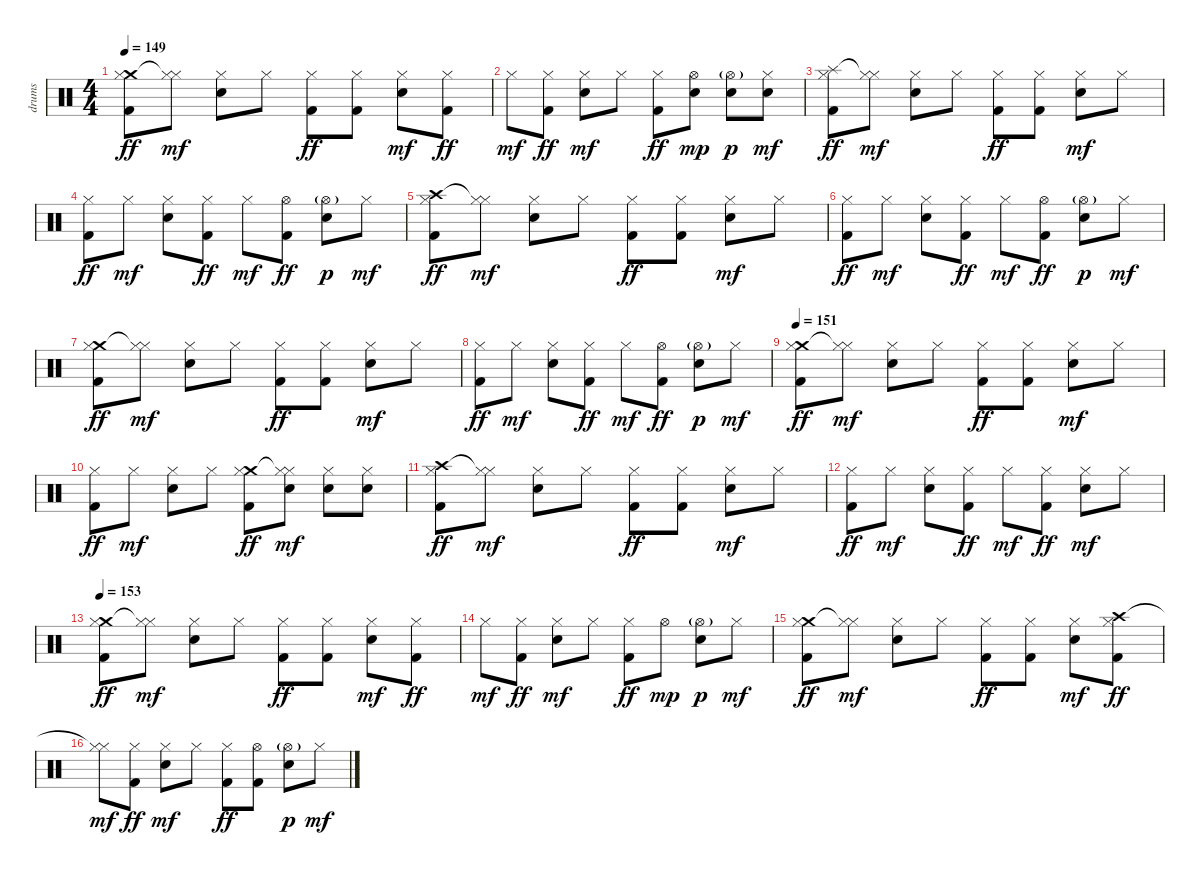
\track ("drums" "drums") {instrument percussion}
\staff {score}
\articulation defaults
\ts (4 4)
\tempo 149
\clef neutral
\ks c
("Crash medium (hit)" "Hi-Hat (closed)" "Kick (hit) 2").8{dy ff} ("Hi-Hat (closed)"{t} "Hi-Hat (closed)").8{dy mf} ("Hi-Hat (closed)" "Electric Snare (hit)").8 "Hi-Hat (closed)".8 ("Hi-Hat (closed)" "Kick (hit) 2").8{dy ff} ("Hi-Hat (closed)" "Kick (hit) 2").8 ("Hi-Hat (closed)" "Electric Snare (hit)").8{dy mf} ("Hi-Hat (closed)" "Kick (hit) 2").8{dy ff} |
"Hi-Hat (closed)".8{dy mf} ("Hi-Hat (closed)" "Kick (hit) 2").8{dy ff} ("Hi-Hat (closed)" "Electric Snare (hit)").8{dy mf} "Hi-Hat (closed)".8 ("Hi-Hat (closed)" "Kick (hit) 2").8{dy ff} ("Hi-Hat (open)" "Electric Snare (hit)").8{dy mp} ("Hi-Hat (open)"{g} "Electric Snare (hit)").8{dy p} ("Hi-Hat (closed)" "Electric Snare (hit)").8{dy mf} |
("Splash (hit)" "Hi-Hat (closed)" "Kick (hit) 2").8{dy ff} ("Hi-Hat (closed)"{t} "Hi-Hat (closed)").8{dy mf} ("Hi-Hat (closed)" "Electric Snare (hit)").8 "Hi-Hat (closed)".8 ("Hi-Hat (closed)" "Kick (hit) 2").8{dy ff} ("Hi-Hat (closed)" "Kick (hit) 2").8 ("Hi-Hat (closed)" "Electric Snare (hit)").8{dy mf} "Hi-Hat (closed)".8 |
("Hi-Hat (closed)" "Kick (hit) 2").8{dy ff} "Hi-Hat (closed)".8{dy mf} ("Hi-Hat (closed)" "Electric Snare (hit)").8 ("Hi-Hat (closed)" "Kick (hit) 2").8{dy ff} "Hi-Hat (closed)".8{dy mf} ("Hi-Hat (open)" "Kick (hit) 2").8{dy ff} ("Hi-Hat (open)"{g} "Electric Snare (hit)").8{dy p} "Hi-Hat (closed)".8{dy mf} |
("Crash high (hit)" "Hi-Hat (closed)" "Kick (hit) 2").8{dy ff} ("Hi-Hat (closed)"{t} "Hi-Hat (closed)").8{dy mf} ("Hi-Hat (closed)" "Electric Snare (hit)").8 "Hi-Hat (closed)".8 ("Hi-Hat (closed)" "Kick (hit) 2").8{dy ff} ("Hi-Hat (closed)" "Kick (hit) 2").8 ("Hi-Hat (closed)" "Electric Snare (hit)").8{dy mf} "Hi-Hat (closed)".8 |
("Hi-Hat (closed)" "Kick (hit) 2").8{dy ff} "Hi-Hat (closed)".8{dy mf} ("Hi-Hat (closed)" "Electric Snare (hit)").8 ("Hi-Hat (closed)" "Kick (hit) 2").8{dy ff} "Hi-Hat (closed)".8{dy mf} ("Hi-Hat (open)" "Kick (hit) 2").8{dy ff} ("Hi-Hat (open)"{g} "Electric Snare (hit)").8{dy p} "Hi-Hat (closed)".8{dy mf} |
("Crash medium (hit)" "Hi-Hat (closed)" "Kick (hit) 2").8{dy ff} ("Hi-Hat (closed)"{t} "Hi-Hat (closed)").8{dy mf} ("Hi-Hat (closed)" "Electric Snare (hit)").8 "Hi-Hat (closed)".8 ("Hi-Hat (closed)" "Kick (hit) 2").8{dy ff} ("Hi-Hat (closed)" "Kick (hit) 2").8 ("Hi-Hat (closed)" "Electric Snare (hit)").8{dy mf} "Hi-Hat (closed)".8 |
("Hi-Hat (closed)" "Kick (hit) 2").8{dy ff} "Hi-Hat (closed)".8{dy mf} ("Hi-Hat (closed)" "Electric Snare (hit)").8 ("Hi-Hat (closed)" "Kick (hit) 2").8{dy ff} "Hi-Hat (closed)".8{dy mf} ("Hi-Hat (open)" "Kick (hit) 2").8{dy ff} ("Hi-Hat (open)"{g} "Electric Snare (hit)").8{dy p} "Hi-Hat (closed)".8{dy mf} |
\tempo 151
("Crash medium (hit)" "Hi-Hat (closed)" "Kick (hit) 2").8{dy ff} ("Hi-Hat (closed)"{t} "Hi-Hat (closed)").8{dy mf} ("Hi-Hat (closed)" "Electric Snare (hit)").8 "Hi-Hat (closed)".8 ("Hi-Hat (closed)" "Kick (hit) 2").8{dy ff} ("Hi-Hat (closed)" "Kick (hit) 2").8 ("Hi-Hat (closed)" "Electric Snare (hit)").8{dy mf} "Hi-Hat (closed)".8 |
("Hi-Hat (closed)" "Kick (hit) 2").8{dy ff} "Hi-Hat (closed)".8{dy mf} ("Hi-Hat (closed)" "Electric Snare (hit)").8 "Hi-Hat (closed)".8 ("Crash medium (hit)" "Hi-Hat (closed)" "Kick (hit) 2").8{dy ff} ("Hi-Hat (closed)"{t} "Hi-Hat (closed)" "Electric Snare (hit)").8{dy mf} ("Hi-Hat (closed)" "Electric Snare (hit)").8 ("Hi-Hat (closed)" "Electric Snare (hit)").8 |
("Crash high (hit)" "Hi-Hat (closed)" "Kick (hit) 2").8{dy ff} ("Hi-Hat (closed)"{t} "Hi-Hat (closed)").8{dy mf} ("Hi-Hat (closed)" "Electric Snare (hit)").8 "Hi-Hat (closed)".8 ("Hi-Hat (closed)" "Kick (hit) 2").8{dy ff} ("Hi-Hat (closed)" "Kick (hit) 2").8 ("Hi-Hat (closed)" "Electric Snare (hit)").8{dy mf} "Hi-Hat (closed)".8 |
("Hi-Hat (closed)" "Kick (hit) 2").8{dy ff} "Hi-Hat (closed)".8{dy mf} ("Hi-Hat (closed)" "Electric Snare (hit)").8 ("Hi-Hat (closed)" "Kick (hit) 2").8{dy ff} "Hi-Hat (closed)".8{dy mf} ("Hi-Hat (closed)" "Kick (hit) 2").8{dy ff} ("Hi-Hat (closed)" "Electric Snare (hit)").8{dy mf} "Hi-Hat (closed)".8 |
\tempo 153
("Crash medium (hit)" "Hi-Hat (closed)" "Kick (hit) 2").8{dy ff} ("Hi-Hat (closed)"{t} "Hi-Hat (closed)").8{dy mf} ("Hi-Hat (closed)" "Electric Snare (hit)").8 "Hi-Hat (closed)".8 ("Hi-Hat (closed)" "Kick (hit) 2").8{dy ff} ("Hi-Hat (closed)" "Kick (hit) 2").8 ("Hi-Hat (closed)" "Electric Snare (hit)").8{dy mf} ("Hi-Hat (closed)" "Kick (hit) 2").8{dy ff} |
"Hi-Hat (closed)".8{dy mf} ("Hi-Hat (closed)" "Kick (hit) 2").8{dy ff} ("Hi-Hat (closed)" "Electric Snare (hit)").8{dy mf} "Hi-Hat (closed)".8 ("Hi-Hat (closed)" "Kick (hit) 2").8{dy ff} "Hi-Hat (open)".8{dy mp} ("Hi-Hat (open)"{g} "Electric Snare (hit)").8{dy p} "Hi-Hat (closed)".8{dy mf} |
("Crash medium (hit)" "Hi-Hat (closed)" "Kick (hit) 2").8{dy ff} ("Hi-Hat (closed)"{t} "Hi-Hat (closed)").8{dy mf} ("Hi-Hat (closed)" "Electric Snare (hit)").8 "Hi-Hat (closed)".8 ("Hi-Hat (closed)" "Kick (hit) 2").8{dy ff} ("Hi-Hat (closed)" "Kick (hit) 2").8 ("Hi-Hat (closed)" "Electric Snare (hit)").8{dy mf} ("Crash high (hit)" "Hi-Hat (closed)" "Kick (hit) 2").8{dy ff} |
("Hi-Hat (closed)"{t} "Hi-Hat (closed)").8{dy mf} ("Hi-Hat (closed)" "Kick (hit) 2").8{dy ff} ("Hi-Hat (closed)" "Electric Snare (hit)").8{dy mf} "Hi-Hat (closed)".8 ("Hi-Hat (closed)" "Kick (hit) 2").8{dy ff} ("Hi-Hat (open)" "Kick (hit) 2").8 ("Hi-Hat (open)"{g} "Electric Snare (hit)").8{dy p} "Hi-Hat (closed)".8{dy mf}
